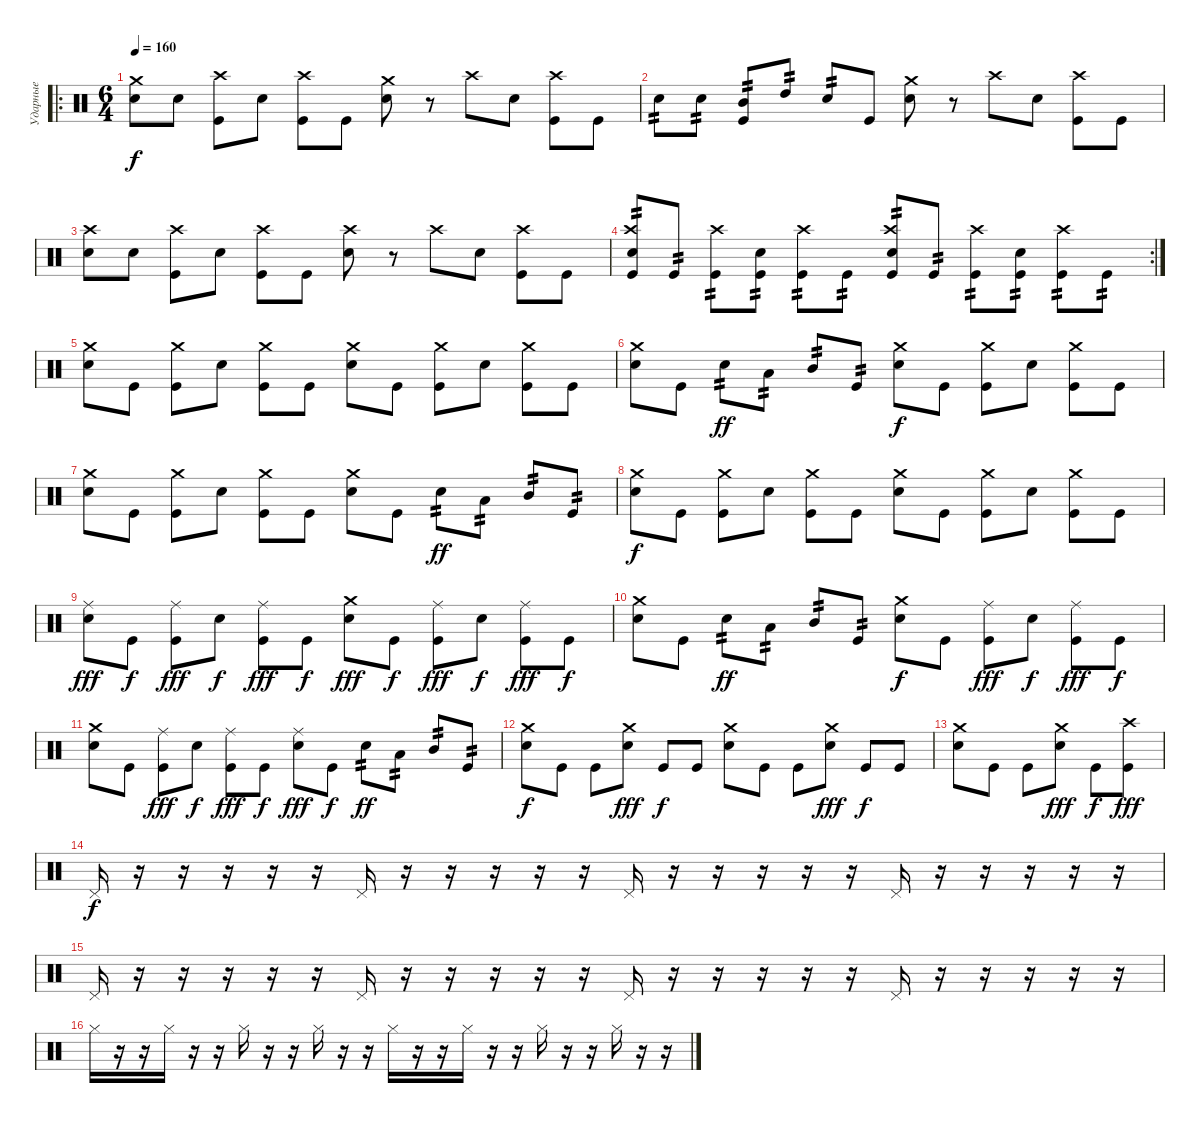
\track ("Ударные" "Ударные") {instrument percussion}
\staff {score}
\articulation defaults
\ro
\ts (6 4)
\tempo 160
\clef neutral
\ks c
("Crash medium (hit)" "Snare (hit) 2").8{dy f} "Snare (hit) 2".8 ("Crash high (hit)" "Kick (hit)").8 "Snare (hit) 2".8 ("Crash high (hit)" "Kick (hit)").8 "Kick (hit)".8 ("Crash medium (hit)" "Snare (hit) 2").8 r.8 "Crash high (hit)".8 "Snare (hit) 2".8 ("Crash high (hit)" "Kick (hit)").8 "Kick (hit)".8 |
"Snare (hit) 2".8{tp 2} "Snare (hit) 2".8{tp 2} ("Mid Tom (hit)" "Kick (hit)").8{tp 2} "High Tom (hit)".8{tp 2} "Snare (hit) 2".8{tp 2} "Kick (hit)".8 ("Crash medium (hit)" "Snare (hit) 2").8 r.8 "Crash high (hit)".8 "Snare (hit) 2".8 ("Crash high (hit)" "Kick (hit)").8 "Kick (hit)".8 |
("Crash high (hit)" "Snare (hit) 2").8 "Snare (hit) 2".8 ("Crash high (hit)" "Kick (hit)").8 "Snare (hit) 2".8 ("Crash high (hit)" "Kick (hit)").8 "Kick (hit)".8 ("Crash high (hit)" "Snare (hit) 2").8 r.8 "Crash high (hit)".8 "Snare (hit) 2".8 ("Crash high (hit)" "Kick (hit)").8 "Kick (hit)".8 |
\rc 2
("Crash high (hit)" "Snare (hit) 2" "Kick (hit)").8{tp 2} "Kick (hit)".8{tp 2} ("Crash high (hit)" "Kick (hit)").8{tp 2} ("Snare (hit) 2" "Kick (hit)").8{tp 2} ("Crash high (hit)" "Kick (hit)").8{tp 2} "Kick (hit)".8{tp 2} ("Crash high (hit)" "Snare (hit) 2" "Kick (hit)").8{tp 2} "Kick (hit)".8{tp 2} ("Crash high (hit)" "Kick (hit)").8{tp 2} ("Snare (hit) 2" "Kick (hit)").8{tp 2} ("Crash high (hit)" "Kick (hit)").8{tp 2} "Kick (hit)".8{tp 2} |
("Crash medium (hit)" "Snare (hit) 2").8 "Kick (hit)".8 ("Crash medium (hit)" "Kick (hit)").8 "Snare (hit) 2".8 ("Crash medium (hit)" "Kick (hit)").8 "Kick (hit)".8 ("Crash medium (hit)" "Snare (hit) 2").8 "Kick (hit)".8 ("Crash medium (hit)" "Kick (hit)").8 "Snare (hit) 2".8 ("Crash medium (hit)" "Kick (hit)").8 "Kick (hit)".8 |
("Crash medium (hit)" "Snare (hit) 2").8 "Kick (hit)".8 "Snare (hit) 2".8{tp 2 dy ff} "Low Tom (hit)".8{tp 2} "Mid Tom (hit)".8{tp 2} "Kick (hit)".8{tp 2} ("Crash medium (hit)" "Snare (hit) 2").8{dy f} "Kick (hit)".8 ("Crash medium (hit)" "Kick (hit)").8 "Snare (hit) 2".8 ("Crash medium (hit)" "Kick (hit)").8 "Kick (hit)".8 |
("Crash medium (hit)" "Snare (hit) 2").8 "Kick (hit)".8 ("Crash medium (hit)" "Kick (hit)").8 "Snare (hit) 2".8 ("Crash medium (hit)" "Kick (hit)").8 "Kick (hit)".8 ("Crash medium (hit)" "Snare (hit) 2").8 "Kick (hit)".8 "Snare (hit) 2".8{tp 2 dy ff} "Low Tom (hit)".8{tp 2} "Mid Tom (hit)".8{tp 2} "Kick (hit)".8{tp 2} |
("Crash medium (hit)" "Snare (hit) 2").8{dy f} "Kick (hit)".8 ("Crash medium (hit)" "Kick (hit)").8 "Snare (hit) 2".8 ("Crash medium (hit)" "Kick (hit)").8 "Kick (hit)".8 ("Crash medium (hit)" "Snare (hit) 2").8 "Kick (hit)".8 ("Crash medium (hit)" "Kick (hit)").8 "Snare (hit) 2".8 ("Crash medium (hit)" "Kick (hit)").8 "Kick (hit)".8 |
("Ride (middle)" "Snare (hit) 2").8{dy fff} "Kick (hit)".8{dy f} ("Ride (middle)" "Kick (hit)").8{dy fff} "Snare (hit) 2".8{dy f} ("Ride (middle)" "Kick (hit)").8{dy fff} "Kick (hit)".8{dy f} ("Crash medium (hit)" "Snare (hit) 2").8{dy fff} "Kick (hit)".8{dy f} ("Ride (middle)" "Kick (hit)").8{dy fff} "Snare (hit) 2".8{dy f} ("Ride (middle)" "Kick (hit)").8{dy fff} "Kick (hit)".8{dy f} |
("Crash medium (hit)" "Snare (hit) 2").8 "Kick (hit)".8 "Snare (hit) 2".8{tp 2 dy ff} "Low Tom (hit)".8{tp 2} "Mid Tom (hit)".8{tp 2} "Kick (hit)".8{tp 2} ("Crash medium (hit)" "Snare (hit) 2").8{dy f} "Kick (hit)".8 ("Ride (middle)" "Kick (hit)").8{dy fff} "Snare (hit) 2".8{dy f} ("Ride (middle)" "Kick (hit)").8{dy fff} "Kick (hit)".8{dy f} |
("Crash medium (hit)" "Snare (hit) 2").8 "Kick (hit)".8 ("Ride (middle)" "Kick (hit)").8{dy fff} "Snare (hit) 2".8{dy f} ("Ride (middle)" "Kick (hit)").8{dy fff} "Kick (hit)".8{dy f} ("Ride (middle)" "Snare (hit) 2").8{dy fff} "Kick (hit)".8{dy f} "Snare (hit) 2".8{tp 2 dy ff} "Low Tom (hit)".8{tp 2} "Mid Tom (hit)".8{tp 2} "Kick (hit)".8{tp 2} |
("Crash medium (hit)" "Snare (hit) 2").8{dy f} "Kick (hit)".8 "Kick (hit)".8 ("Crash medium (hit)" "Snare (hit) 2").8{dy fff} "Kick (hit)".8{dy f} "Kick (hit)".8 ("Crash medium (hit)" "Snare (hit) 2").8 "Kick (hit)".8 "Kick (hit)".8 ("Crash medium (hit)" "Snare (hit) 2").8{dy fff} "Kick (hit)".8{dy f} "Kick (hit)".8 |
("Crash medium (hit)" "Snare (hit) 2").8 "Kick (hit)".8 "Kick (hit)".8 ("Crash medium (hit)" "Snare (hit) 2").8{dy fff} "Kick (hit)".8{dy f} ("Crash high (hit)" "Kick (hit)").8{dy fff} |
"Pedal Hi-Hat (hit)".16{dy f} r.16 r.16 r.16 r.16 r.16 "Pedal Hi-Hat (hit)".16 r.16 r.16 r.16 r.16 r.16 "Pedal Hi-Hat (hit)".16 r.16 r.16 r.16 r.16 r.16 "Pedal Hi-Hat (hit)".16 r.16 r.16 r.16 r.16 r.16 |
"Pedal Hi-Hat (hit)".16 r.16 r.16 r.16 r.16 r.16 "Pedal Hi-Hat (hit)".16 r.16 r.16 r.16 r.16 r.16 "Pedal Hi-Hat (hit)".16 r.16 r.16 r.16 r.16 r.16 "Pedal Hi-Hat (hit)".16 r.16 r.16 r.16 r.16 r.16 |
"Hi-Hat (closed)".16 r.16 r.16 "Hi-Hat (closed)".16 r.16 r.16 "Hi-Hat (closed)".16 r.16 r.16 "Hi-Hat (closed)".16 r.16 r.16 "Hi-Hat (closed)".16 r.16 r.16 "Hi-Hat (closed)".16 r.16 r.16 "Hi-Hat (closed)".16 r.16 r.16 "Hi-Hat (closed)".16 r.16 r.16
